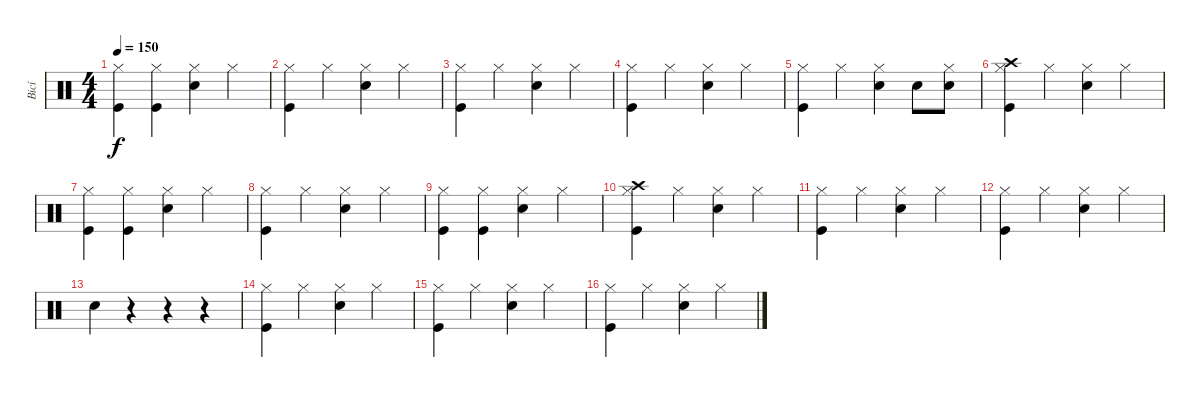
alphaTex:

\track ("Bicí" "Bicí") {instrument percussion}
\staff {score}
\articulation defaults
\ts (4 4)
\tempo 150
\clef neutral
\ks c
("Kick (hit)" "Hi-Hat (closed)").4{dy f} ("Kick (hit)" "Hi-Hat (closed)").4 ("Snare (hit) 2" "Hi-Hat (closed)").4 "Hi-Hat (closed)".4 |
("Kick (hit)" "Hi-Hat (closed)").4 "Hi-Hat (closed)".4 ("Snare (hit) 2" "Hi-Hat (closed)").4 "Hi-Hat (closed)".4 |
("Kick (hit)" "Hi-Hat (closed)").4 "Hi-Hat (closed)".4 ("Snare (hit) 2" "Hi-Hat (closed)").4 "Hi-Hat (closed)".4 |
("Kick (hit)" "Hi-Hat (closed)").4 "Hi-Hat (closed)".4 ("Snare (hit) 2" "Hi-Hat (closed)").4 "Hi-Hat (closed)".4 |
("Kick (hit)" "Hi-Hat (closed)").4 "Hi-Hat (closed)".4 ("Snare (hit) 2" "Hi-Hat (closed)").4 "Snare (hit) 2".8 ("Snare (hit) 2" "Hi-Hat (closed)").8 |
("Kick (hit)" "Crash high (hit)" "Hi-Hat (closed)").4 "Hi-Hat (closed)".4 ("Snare (hit) 2" "Hi-Hat (closed)").4 "Hi-Hat (closed)".4 |
("Kick (hit)" "Hi-Hat (closed)").4 ("Kick (hit)" "Hi-Hat (closed)").4 ("Snare (hit) 2" "Hi-Hat (closed)").4 "Hi-Hat (closed)".4 |
("Kick (hit)" "Hi-Hat (closed)").4 "Hi-Hat (closed)".4 ("Snare (hit) 2" "Hi-Hat (closed)").4 "Hi-Hat (closed)".4 |
("Kick (hit)" "Hi-Hat (closed)").4 ("Kick (hit)" "Hi-Hat (closed)").4 ("Snare (hit) 2" "Hi-Hat (closed)").4 "Hi-Hat (closed)".4 |
("Kick (hit)" "Crash high (hit)" "Hi-Hat (closed)").4 "Hi-Hat (closed)".4 ("Snare (hit) 2" "Hi-Hat (closed)").4 "Hi-Hat (closed)".4 |
("Kick (hit)" "Hi-Hat (closed)").4 "Hi-Hat (closed)".4 ("Snare (hit) 2" "Hi-Hat (closed)").4 "Hi-Hat (closed)".4 |
("Kick (hit)" "Hi-Hat (closed)").4 "Hi-Hat (closed)".4 ("Snare (hit) 2" "Hi-Hat (closed)").4 "Hi-Hat (closed)".4 |
"Snare (hit) 2".4 r.4 r.4 r.4 |
("Kick (hit)" "Hi-Hat (closed)").4 "Hi-Hat (closed)".4 ("Snare (hit) 2" "Hi-Hat (closed)").4 "Hi-Hat (closed)".4 |
("Kick (hit)" "Hi-Hat (closed)").4 "Hi-Hat (closed)".4 ("Snare (hit) 2" "Hi-Hat (closed)").4 "Hi-Hat (closed)".4 |
("Kick (hit)" "Hi-Hat (closed)").4 "Hi-Hat (closed)".4 ("Snare (hit) 2" "Hi-Hat (closed)").4 "Hi-Hat (closed)".4
